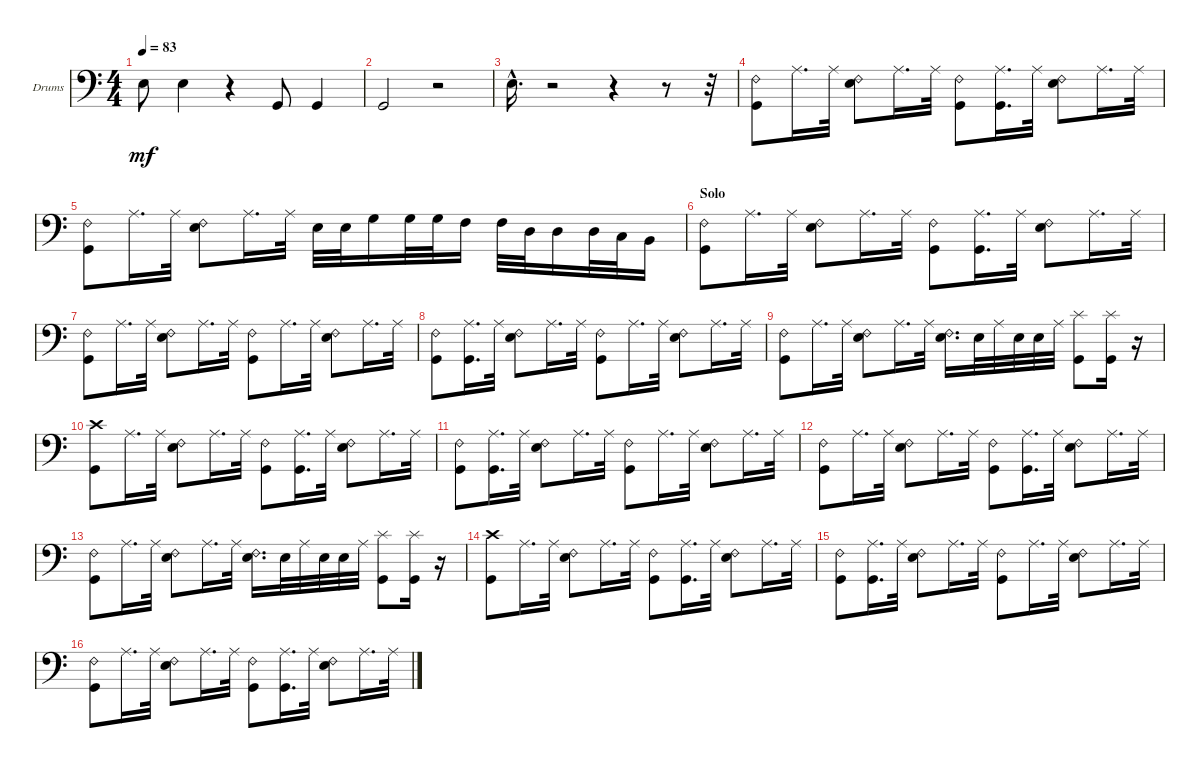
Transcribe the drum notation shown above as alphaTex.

\bracketExtendMode groupsimilarinstruments
\firstSystemTrackNameOrientation horizontal
\otherSystemsTrackNameOrientation horizontal
\track ("Drums" "Drums") {instrument percussion}
\staff {score}
\articulation defaults
\ts (4 4)
\tempo 83
\clef f4
\ks c "Snare (hit) 2".8{dy mf} "Snare (hit) 2".4
r.4 "Kick (hit)".8 "Kick (hit)".4 |
"Kick (hit)".2 r.2 |
\scale
0.217054 "Snare (hit) 2"{hac}.16{d} r.2 r.4 r.8 r.32 |
\scale
0.333333 ("Kick (hit)" "Ride (bell) 2").8 "Ride (middle)".16{d} "Ride (middle)".32 ("Snare (hit) 2" "Ride (bell) 2").8 "Ride (middle)".16{d} "Ride (middle)".32 ("Kick (hit)" "Ride (bell) 2").8 ("Ride (middle)" "Kick (hit)").16{d} "Ride (middle)".32 ("Snare (hit) 2" "Ride (bell) 2").8 "Ride (middle)".16{d} "Ride (middle)".32 |
\scale
0.333333 ("Kick (hit)" "Ride (bell) 2").8 "Ride (middle)".16{d} "Ride (middle)".32 ("Snare (hit) 2" "Ride (bell) 2").8 "Ride (middle)".16{d} "Ride (middle)".32 "Snare (hit) 2".32 "Snare (hit) 2".32 "High Floor Tom (hit)".16 "High Floor Tom (hit)".32 "High Floor Tom (hit)".32 "High Tom (hit)".16 "High Tom (hit)".32 "Mid Tom (hit)".32 "Mid Tom (hit)".16 "Mid Tom (hit)".32 "Low Tom (hit)".32 "Very Low Tom (hit)".16 |
\section ("" "Solo")
\scale
0.333333 ("Kick (hit)" "Ride (bell) 2").8 "Ride (middle)".16{d} "Ride (middle)".32 ("Snare (hit) 2" "Ride (bell) 2").8 "Ride (middle)".16{d} "Ride (middle)".32 ("Kick (hit)" "Ride (bell) 2").8 ("Ride (middle)" "Kick (hit)").16{d} "Ride (middle)".32 ("Snare (hit) 2" "Ride (bell) 2").8 "Ride (middle)".16{d} "Ride (middle)".32 |
\scale
0.333333 ("Kick (hit)" "Ride (bell) 2").8 "Ride (middle)".16{d} "Ride (middle)".32 ("Snare (hit) 2" "Ride (bell) 2").8 "Ride (middle)".16{d} "Ride (middle)".32 ("Kick (hit)" "Ride (bell) 2").8 "Ride (middle)".16{d} "Ride (middle)".32 ("Snare (hit) 2" "Ride (bell) 2").8 "Ride (middle)".16{d} "Ride (middle)".32 |
\scale
0.333333 ("Kick (hit)" "Ride (bell) 2").8 ("Ride (middle)" "Kick (hit)").16{d} "Ride (middle)".32 ("Snare (hit) 2" "Ride (bell) 2").8 "Ride (middle)".16{d} "Ride (middle)".32 ("Kick (hit)" "Ride (bell) 2").8 "Ride (middle)".16{d} "Ride (middle)".32 ("Snare (hit) 2" "Ride (bell) 2").8 "Ride (middle)".16{d} "Ride (middle)".32 |
\scale
0.333333 ("Kick (hit)" "Ride (bell) 2").8 "Ride (middle)".16{d} "Ride (middle)".32 ("Snare (hit) 2" "Ride (bell) 2").8 "Ride (middle)".16{d} "Ride (middle)".32 ("Ride (bell) 2" "Snare (hit) 2").16{d} "Snare (hit) 2".32 "Ride (middle)".32 "Snare (hit) 2".32 "Snare (hit) 2".32 "Ride (middle)".32 ("Kick (hit)" "Splash (hit)").8 ("Kick (hit)" "Splash (hit)").16 r.16 |
\scale
0.333333 ("Kick (hit)" "Crash high (hit)").8 "Ride (middle)".16{d} "Ride (middle)".32 ("Snare (hit) 2" "Ride (bell) 2").8 "Ride (middle)".16{d} "Ride (middle)".32 ("Kick (hit)" "Ride (bell) 2").8 ("Ride (middle)" "Kick (hit)").16{d} "Ride (middle)".32 ("Snare (hit) 2" "Ride (bell) 2").8 "Ride (middle)".16{d} "Ride (middle)".32 |
\scale
0.333333 ("Kick (hit)" "Ride (bell) 2").8 ("Ride (middle)" "Kick (hit)").16{d} "Ride (middle)".32 ("Snare (hit) 2" "Ride (bell) 2").8 "Ride (middle)".16{d} "Ride (middle)".32 ("Kick (hit)" "Ride (bell) 2").8 "Ride (middle)".16{d} "Ride (middle)".32 ("Snare (hit) 2" "Ride (bell) 2").8 "Ride (middle)".16{d} "Ride (middle)".32 |
\scale
0.333333 ("Kick (hit)" "Ride (bell) 2").8 "Ride (middle)".16{d} "Ride (middle)".32 ("Snare (hit) 2" "Ride (bell) 2").8 "Ride (middle)".16{d} "Ride (middle)".32 ("Kick (hit)" "Ride (bell) 2").8 ("Ride (middle)" "Kick (hit)").16{d} "Ride (middle)".32 ("Snare (hit) 2" "Ride (bell) 2").8 "Ride (middle)".16{d} "Ride (middle)".32 |
\scale
0.333333 ("Kick (hit)" "Ride (bell) 2").8 "Ride (middle)".16{d} "Ride (middle)".32 ("Snare (hit) 2" "Ride (bell) 2").8 "Ride (middle)".16{d} "Ride (middle)".32 ("Ride (bell) 2" "Snare (hit) 2").16{d} "Snare (hit) 2".32 "Ride (middle)".32 "Snare (hit) 2".32 "Snare (hit) 2".32 "Ride (middle)".32 ("Kick (hit)" "Splash (hit)").8 ("Kick (hit)" "Splash (hit)").16 r.16 |
\scale
0.333333 ("Kick (hit)" "Crash high (hit)").8 "Ride (middle)".16{d} "Ride (middle)".32 ("Snare (hit) 2" "Ride (bell) 2").8 "Ride (middle)".16{d} "Ride (middle)".32 ("Kick (hit)" "Ride (bell) 2").8 ("Ride (middle)" "Kick (hit)").16{d} "Ride (middle)".32 ("Snare (hit) 2" "Ride (bell) 2").8 "Ride (middle)".16{d} "Ride (middle)".32 |
\scale
0.333333 ("Kick (hit)" "Ride (bell) 2").8 ("Ride (middle)" "Kick (hit)").16{d} "Ride (middle)".32 ("Snare (hit) 2" "Ride (bell) 2").8 "Ride (middle)".16{d} "Ride (middle)".32 ("Kick (hit)" "Ride (bell) 2").8 "Ride (middle)".16{d} "Ride (middle)".32 ("Snare (hit) 2" "Ride (bell) 2").8 "Ride (middle)".16{d} "Ride (middle)".32 |
\scale
0.262911 ("Kick (hit)" "Ride (bell) 2").8 "Ride (middle)".16{d} "Ride (middle)".32 ("Snare (hit) 2" "Ride (bell) 2").8 "Ride (middle)".16{d} "Ride (middle)".32 ("Kick (hit)" "Ride (bell) 2").8 ("Ride (middle)" "Kick (hit)").16{d} "Ride (middle)".32 ("Snare (hit) 2" "Ride (bell) 2").8 "Ride (middle)".16{d} "Ride (middle)".32
